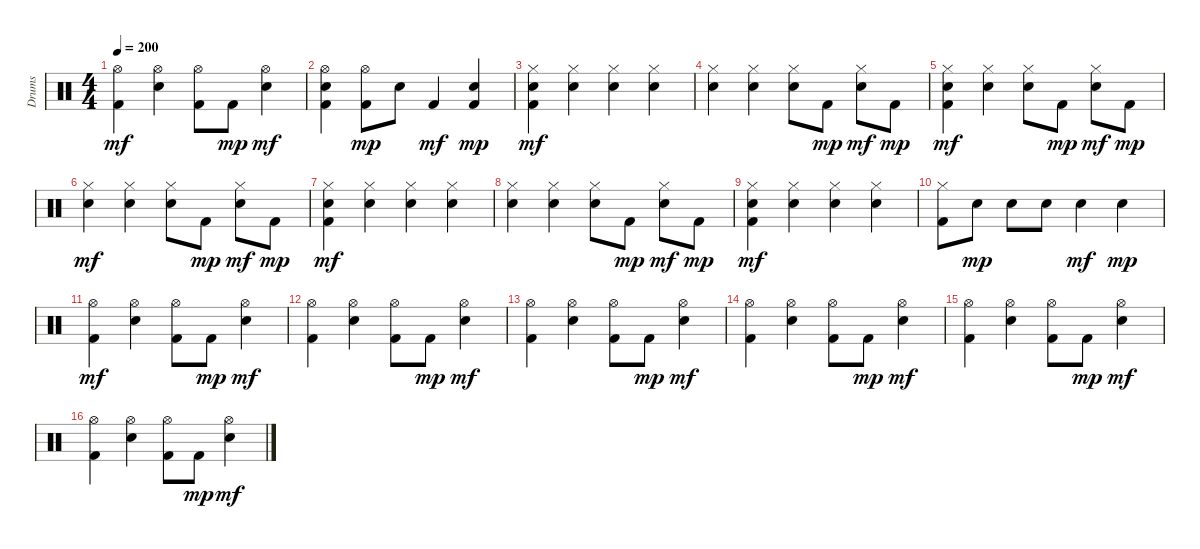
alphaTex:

\track ("Drums" "Drums") {instrument percussion}
\staff {score}
\articulation defaults
\ts (4 4)
\tempo 200
\clef neutral
\ks c
("Hi-Hat (open)" "Kick (hit) 2").4{dy mf} ("Snare (hit) 2" "Hi-Hat (open)").4 ("Hi-Hat (open)" "Kick (hit) 2").8 "Kick (hit) 2".8{dy mp} ("Snare (hit) 2" "Hi-Hat (open)").4{dy mf} |
("Snare (hit) 2" "Hi-Hat (open)" "Kick (hit) 2").4 ("Hi-Hat (open)" "Kick (hit) 2").8{dy mp} "Snare (hit) 2".8 "Kick (hit) 2".4{dy mf} ("Snare (hit) 2" "Kick (hit) 2").4{dy mp} |
("Snare (hit) 2" "Hi-Hat (closed)" "Kick (hit) 2").4{dy mf} ("Snare (hit) 2" "Hi-Hat (closed)").4 ("Snare (hit) 2" "Hi-Hat (closed)").4 ("Snare (hit) 2" "Hi-Hat (closed)").4 |
("Snare (hit) 2" "Hi-Hat (closed)").4 ("Snare (hit) 2" "Hi-Hat (closed)").4 ("Snare (hit) 2" "Hi-Hat (closed)").8 "Kick (hit) 2".8{dy mp} ("Snare (hit) 2" "Hi-Hat (closed)").8{dy mf} "Kick (hit) 2".8{dy mp} |
("Snare (hit) 2" "Hi-Hat (closed)" "Kick (hit) 2").4{dy mf} ("Snare (hit) 2" "Hi-Hat (closed)").4 ("Snare (hit) 2" "Hi-Hat (closed)").8 "Kick (hit) 2".8{dy mp} ("Snare (hit) 2" "Hi-Hat (closed)").8{dy mf} "Kick (hit) 2".8{dy mp} |
("Snare (hit) 2" "Hi-Hat (closed)").4{dy mf} ("Snare (hit) 2" "Hi-Hat (closed)").4 ("Snare (hit) 2" "Hi-Hat (closed)").8 "Kick (hit) 2".8{dy mp} ("Snare (hit) 2" "Hi-Hat (closed)").8{dy mf} "Kick (hit) 2".8{dy mp} |
("Snare (hit) 2" "Hi-Hat (closed)" "Kick (hit) 2").4{dy mf} ("Snare (hit) 2" "Hi-Hat (closed)").4 ("Snare (hit) 2" "Hi-Hat (closed)").4 ("Snare (hit) 2" "Hi-Hat (closed)").4 |
("Snare (hit) 2" "Hi-Hat (closed)").4 ("Snare (hit) 2" "Hi-Hat (closed)").4 ("Snare (hit) 2" "Hi-Hat (closed)").8 "Kick (hit) 2".8{dy mp} ("Snare (hit) 2" "Hi-Hat (closed)").8{dy mf} "Kick (hit) 2".8{dy mp} |
("Snare (hit) 2" "Hi-Hat (closed)" "Kick (hit) 2").4{dy mf} ("Snare (hit) 2" "Hi-Hat (closed)").4 ("Snare (hit) 2" "Hi-Hat (closed)").4 ("Snare (hit) 2" "Hi-Hat (closed)").4 |
("Hi-Hat (closed)" "Kick (hit) 2").8 "Snare (hit) 2".8{dy mp} "Snare (hit) 2".8 "Snare (hit) 2".8 "Snare (hit) 2".4{dy mf} "Snare (hit) 2".4{dy mp} |
("Hi-Hat (open)" "Kick (hit) 2").4{dy mf} ("Snare (hit) 2" "Hi-Hat (open)").4 ("Hi-Hat (open)" "Kick (hit) 2").8 "Kick (hit) 2".8{dy mp} ("Snare (hit) 2" "Hi-Hat (open)").4{dy mf} |
("Hi-Hat (open)" "Kick (hit) 2").4 ("Snare (hit) 2" "Hi-Hat (open)").4 ("Hi-Hat (open)" "Kick (hit) 2").8 "Kick (hit) 2".8{dy mp} ("Snare (hit) 2" "Hi-Hat (open)").4{dy mf} |
("Hi-Hat (open)" "Kick (hit) 2").4 ("Snare (hit) 2" "Hi-Hat (open)").4 ("Hi-Hat (open)" "Kick (hit) 2").8 "Kick (hit) 2".8{dy mp} ("Snare (hit) 2" "Hi-Hat (open)").4{dy mf} |
("Hi-Hat (open)" "Kick (hit) 2").4 ("Snare (hit) 2" "Hi-Hat (open)").4 ("Hi-Hat (open)" "Kick (hit) 2").8 "Kick (hit) 2".8{dy mp} ("Snare (hit) 2" "Hi-Hat (open)").4{dy mf} |
("Hi-Hat (open)" "Kick (hit) 2").4 ("Snare (hit) 2" "Hi-Hat (open)").4 ("Hi-Hat (open)" "Kick (hit) 2").8 "Kick (hit) 2".8{dy mp} ("Snare (hit) 2" "Hi-Hat (open)").4{dy mf} |
("Hi-Hat (open)" "Kick (hit) 2").4 ("Snare (hit) 2" "Hi-Hat (open)").4 ("Hi-Hat (open)" "Kick (hit) 2").8 "Kick (hit) 2".8{dy mp} ("Snare (hit) 2" "Hi-Hat (open)").4{dy mf}
